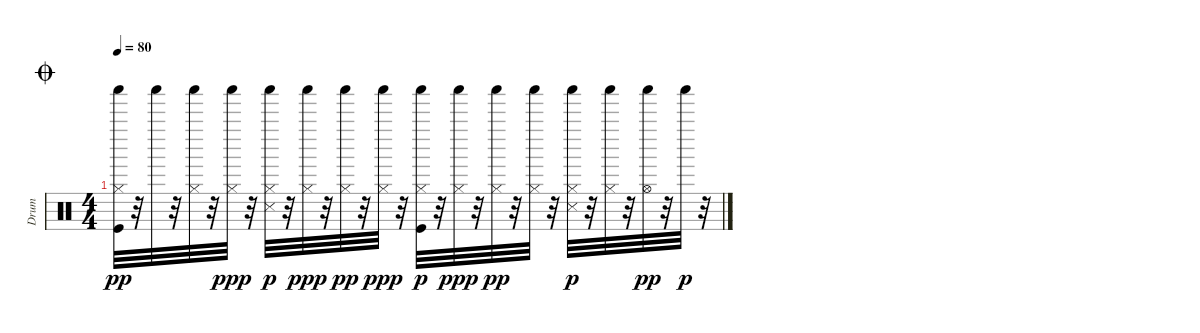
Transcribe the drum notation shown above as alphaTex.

\track ("Drum" "Drum") {instrument percussion}
\staff {score}
\articulation defaults
\ts (4 4)
\jump coda
\tempo 80
\clef neutral
\ks c
("Kick (hit)" "Shaker (hit)" "Hi-Hat (closed)").32{dy pp} r.32 "Shaker (hit)".32 r.32 ("Shaker (hit)" "Hi-Hat (closed)").32 r.32 ("Shaker (hit)" "Hi-Hat (closed)").32{dy ppp} r.32 ("Snare (side stick) 3" "Shaker (hit)" "Hi-Hat (closed)").32{dy p} r.32 ("Shaker (hit)" "Hi-Hat (closed)").32{dy ppp} r.32 ("Shaker (hit)" "Hi-Hat (closed)").32{dy pp} r.32 ("Shaker (hit)" "Hi-Hat (closed)").32{dy ppp} r.32 ("Kick (hit)" "Shaker (hit)" "Hi-Hat (closed)").32{dy p} r.32 ("Shaker (hit)" "Hi-Hat (closed)").32{dy ppp} r.32 ("Shaker (hit)" "Hi-Hat (closed)").32{dy pp} r.32 ("Shaker (hit)" "Hi-Hat (closed)").32 r.32 ("Snare (side stick) 3" "Shaker (hit)" "Hi-Hat (closed)").32{dy p} r.32 ("Shaker (hit)" "Hi-Hat (closed)").32 r.32 ("Hi-Hat (open)" "Shaker (hit)").32{dy pp} r.32 "Shaker (hit)".32{dy p} r.32
